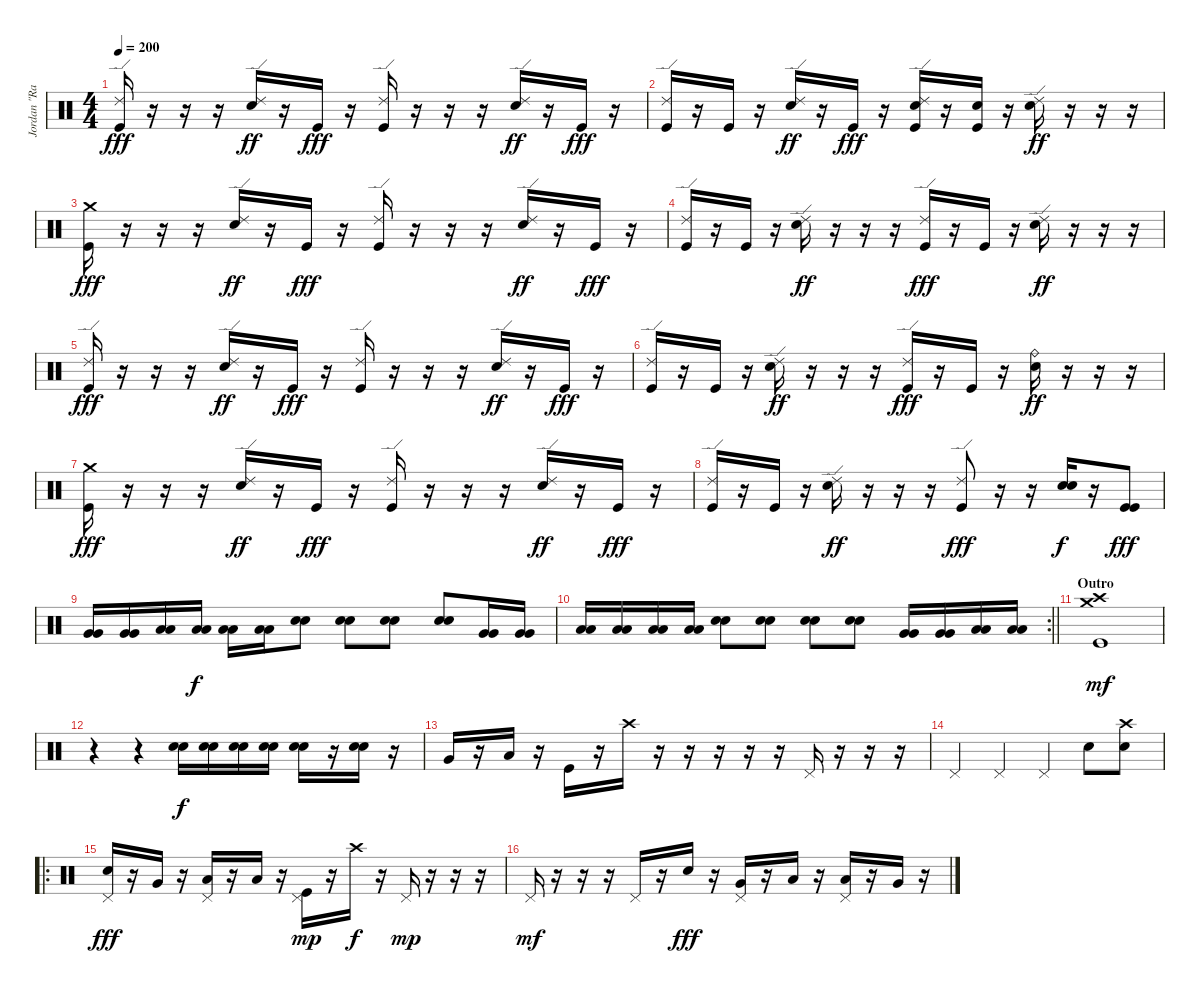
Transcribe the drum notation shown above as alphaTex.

\track ("Jordan \"Ratbeard\" Hastings" "Jordan \"Ra") {instrument percussion}
\staff {score}
\articulation defaults
\ts (4 4)
\tempo 200
\clef neutral
\ks c
("Ride (edge) 2" "Kick (hit)").16{dy fff} r.16 r.16 r.16 ("Ride (edge) 2" "Electric Snare (hit)").16{dy ff} r.16 "Kick (hit)".16{dy fff} r.16 ("Ride (edge) 2" "Kick (hit)").16 r.16 r.16 r.16 ("Ride (edge) 2" "Electric Snare (hit)").16{dy ff} r.16 "Kick (hit)".16{dy fff} r.16 |
("Ride (edge) 2" "Kick (hit)").16 r.16 "Kick (hit)".16 r.16 ("Ride (edge) 2" "Electric Snare (hit)").16{dy ff} r.16 "Kick (hit)".16{dy fff} r.16 ("Ride (edge) 2" "Electric Snare (hit)" "Kick (hit)").16 r.16 ("Electric Snare (hit)" "Kick (hit)").16 r.16 ("Ride (edge) 2" "Electric Snare (hit)").16{dy ff} r.16 r.16 r.16 |
("Crash medium (hit)" "Kick (hit)").16{dy fff} r.16 r.16 r.16 ("Ride (edge) 2" "Electric Snare (hit)").16{dy ff} r.16 "Kick (hit)".16{dy fff} r.16 ("Ride (edge) 2" "Kick (hit)").16 r.16 r.16 r.16 ("Ride (edge) 2" "Electric Snare (hit)").16{dy ff} r.16 "Kick (hit)".16{dy fff} r.16 |
("Ride (edge) 2" "Kick (hit)").16 r.16 "Kick (hit)".16 r.16 ("Ride (edge) 2" "Electric Snare (hit)").16{dy ff} r.16 r.16 r.16 ("Ride (edge) 2" "Kick (hit)").16{dy fff} r.16 "Kick (hit)".16 r.16 ("Ride (edge) 2" "Electric Snare (hit)").16{dy ff} r.16 r.16 r.16 |
("Ride (edge) 2" "Kick (hit)").16{dy fff} r.16 r.16 r.16 ("Ride (edge) 2" "Electric Snare (hit)").16{dy ff} r.16 "Kick (hit)".16{dy fff} r.16 ("Ride (edge) 2" "Kick (hit)").16 r.16 r.16 r.16 ("Ride (edge) 2" "Electric Snare (hit)").16{dy ff} r.16 "Kick (hit)".16{dy fff} r.16 |
("Ride (edge) 2" "Kick (hit)").16 r.16 "Kick (hit)".16 r.16 ("Ride (edge) 2" "Electric Snare (hit)").16{dy ff} r.16 r.16 r.16 ("Ride (edge) 2" "Kick (hit)").16{dy fff} r.16 "Kick (hit)".16 r.16 ("Ride (bell)" "Electric Snare (hit)").16{dy ff} r.16 r.16 r.16 |
("Crash medium (hit)" "Kick (hit)").16{dy fff} r.16 r.16 r.16 ("Ride (edge) 2" "Electric Snare (hit)").16{dy ff} r.16 "Kick (hit)".16{dy fff} r.16 ("Ride (edge) 2" "Kick (hit)").16 r.16 r.16 r.16 ("Ride (edge) 2" "Electric Snare (hit)").16{dy ff} r.16 "Kick (hit)".16{dy fff} r.16 |
("Ride (edge) 2" "Kick (hit)").16 r.16 "Kick (hit)".16 r.16 ("Ride (edge) 2" "Electric Snare (hit)").16{dy ff} r.16 r.16 r.16 ("Ride (edge) 2" "Kick (hit)").8{dy fff} r.16 r.16 ("Electric Snare (hit)" "Electric Snare (hit)").16{dy f} r.16 ("Kick (hit)" "Kick (hit)").8{dy fff} |
("Very Low Tom (hit)" "Very Low Tom (hit)").16 ("Very Low Tom (hit)" "Very Low Tom (hit)").16 ("Low Tom (hit)" "Low Tom (hit)").16 ("Low Tom (hit)" "Low Tom (hit)").16{dy f} ("Low Floor Tom (hit)" "Low Floor Tom (hit)").16 ("Low Floor Tom (hit)" "Low Floor Tom (hit)").16 ("Electric Snare (hit)" "Electric Snare (hit)").8 ("Electric Snare (hit)" "Electric Snare (hit)").8 ("Electric Snare (hit)" "Electric Snare (hit)").8 ("Electric Snare (hit)" "Electric Snare (hit)").8 ("Very Low Tom (hit)" "Very Low Tom (hit)").16 ("Very Low Tom (hit)" "Very Low Tom (hit)").16 |
\rc 2
\barLineRight lightlight
("Low Tom (hit)" "Low Tom (hit)").16 ("Low Tom (hit)" "Low Tom (hit)").16 ("Low Floor Tom (hit)" "Low Floor Tom (hit)").16 ("Low Floor Tom (hit)" "Low Floor Tom (hit)").16 ("Electric Snare (hit)" "Electric Snare (hit)").8 ("Electric Snare (hit)" "Electric Snare (hit)").8 ("Electric Snare (hit)" "Electric Snare (hit)").8 ("Electric Snare (hit)" "Electric Snare (hit)").8 ("Very Low Tom (hit)" "Very Low Tom (hit)").16 ("Very Low Tom (hit)" "Very Low Tom (hit)").16 ("Low Tom (hit)" "Low Tom (hit)").16 ("Low Tom (hit)" "Low Tom (hit)").16 |
\section ("" "Outro")
("Crash medium (hit)" "Crash high (hit)" "Kick (hit)").1{dy mf} |
r.4 r.4 ("Electric Snare (hit)" "Electric Snare (hit)").16{dy f} ("Electric Snare (hit)" "Electric Snare (hit)").16 ("Electric Snare (hit)" "Electric Snare (hit)").16 ("Electric Snare (hit)" "Electric Snare (hit)").16 ("Electric Snare (hit)" "Electric Snare (hit)").16 r.16 ("Electric Snare (hit)" "Electric Snare (hit)").16 r.16 |
"Very Low Tom (hit)".16 r.16 "Low Tom (hit)".16 r.16 "Kick (hit)".16 r.16 "Crash high (hit)".16 r.16 r.16 r.16 r.16 r.16 "Pedal Hi-Hat (hit)".16 r.16 r.16 r.16 |
"Pedal Hi-Hat (hit)".4 "Pedal Hi-Hat (hit)".4 "Pedal Hi-Hat (hit)".4 "Electric Snare (hit)".8 ("Crash high (hit)" "Electric Snare (hit)").8 |
\ro
("Pedal Hi-Hat (hit)" "Electric Snare (hit)").16{dy fff} r.16 "Very Low Tom (hit)".16 r.16 ("Pedal Hi-Hat (hit)" "Low Tom (hit)").16 r.16 "Low Floor Tom (hit)".16 r.16 ("Pedal Hi-Hat (hit)" "Kick (hit)").16{dy mp} r.16 "Crash high (hit)".16{dy f} r.16 "Pedal Hi-Hat (hit)".16{dy mp} r.16 r.16 r.16 |
"Pedal Hi-Hat (hit)".16{dy mf} r.16 r.16 r.16 "Pedal Hi-Hat (hit)".16 r.16 "Electric Snare (hit)".16{dy fff} r.16 ("Pedal Hi-Hat (hit)" "Very Low Tom (hit)").16 r.16 "Low Tom (hit)".16 r.16 ("Pedal Hi-Hat (hit)" "Low Floor Tom (hit)").16 r.16 "Very Low Tom (hit)".16 r.16
